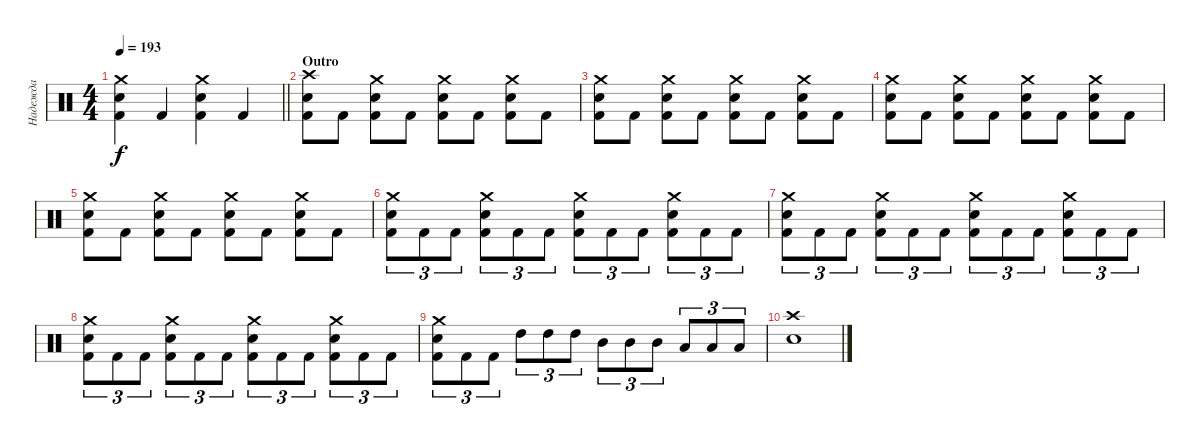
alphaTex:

\track ("Надежда" "Надежда") {instrument percussion}
\staff {score}
\articulation defaults
\ts (4 4)
\tempo 193
\clef neutral
\barLineRight lightlight
\ks c
("Crash medium (hit)" "Snare (hit) 2" "Kick (hit) 2").4{dy f} "Kick (hit) 2".4 ("Crash medium (hit)" "Snare (hit) 2" "Kick (hit) 2").4 "Kick (hit) 2".4 |
\section ("" "Outro")
("Crash high (hit)" "Snare (hit) 2" "Kick (hit) 2").8 "Kick (hit) 2".8 ("Crash medium (hit)" "Snare (hit) 2" "Kick (hit) 2").8 "Kick (hit) 2".8 ("Crash medium (hit)" "Snare (hit) 2" "Kick (hit) 2").8 "Kick (hit) 2".8 ("Crash medium (hit)" "Snare (hit) 2" "Kick (hit) 2").8 "Kick (hit) 2".8 |
("Crash medium (hit)" "Snare (hit) 2" "Kick (hit) 2").8 "Kick (hit) 2".8 ("Crash medium (hit)" "Snare (hit) 2" "Kick (hit) 2").8 "Kick (hit) 2".8 ("Crash medium (hit)" "Snare (hit) 2" "Kick (hit) 2").8 "Kick (hit) 2".8 ("Crash medium (hit)" "Snare (hit) 2" "Kick (hit) 2").8 "Kick (hit) 2".8 |
("Crash medium (hit)" "Snare (hit) 2" "Kick (hit) 2").8 "Kick (hit) 2".8 ("Crash medium (hit)" "Snare (hit) 2" "Kick (hit) 2").8 "Kick (hit) 2".8 ("Crash medium (hit)" "Snare (hit) 2" "Kick (hit) 2").8 "Kick (hit) 2".8 ("Crash medium (hit)" "Snare (hit) 2" "Kick (hit) 2").8 "Kick (hit) 2".8 |
("Crash medium (hit)" "Snare (hit) 2" "Kick (hit) 2").8 "Kick (hit) 2".8 ("Crash medium (hit)" "Snare (hit) 2" "Kick (hit) 2").8 "Kick (hit) 2".8 ("Crash medium (hit)" "Snare (hit) 2" "Kick (hit) 2").8 "Kick (hit) 2".8 ("Crash medium (hit)" "Snare (hit) 2" "Kick (hit) 2").8 "Kick (hit) 2".8 |
("Crash medium (hit)" "Snare (hit) 2" "Kick (hit) 2").8{tu (3 2)} "Kick (hit) 2".8{tu (3 2)} "Kick (hit) 2".8{tu (3 2)} ("Crash medium (hit)" "Snare (hit) 2" "Kick (hit) 2").8{tu (3 2)} "Kick (hit) 2".8{tu (3 2)} "Kick (hit) 2".8{tu (3 2)} ("Crash medium (hit)" "Snare (hit) 2" "Kick (hit) 2").8{tu (3 2)} "Kick (hit) 2".8{tu (3 2)} "Kick (hit) 2".8{tu (3 2)} ("Crash medium (hit)" "Snare (hit) 2" "Kick (hit) 2").8{tu (3 2)} "Kick (hit) 2".8{tu (3 2)} "Kick (hit) 2".8{tu (3 2)} |
("Crash medium (hit)" "Snare (hit) 2" "Kick (hit) 2").8{tu (3 2)} "Kick (hit) 2".8{tu (3 2)} "Kick (hit) 2".8{tu (3 2)} ("Crash medium (hit)" "Snare (hit) 2" "Kick (hit) 2").8{tu (3 2)} "Kick (hit) 2".8{tu (3 2)} "Kick (hit) 2".8{tu (3 2)} ("Crash medium (hit)" "Snare (hit) 2" "Kick (hit) 2").8{tu (3 2)} "Kick (hit) 2".8{tu (3 2)} "Kick (hit) 2".8{tu (3 2)} ("Crash medium (hit)" "Snare (hit) 2" "Kick (hit) 2").8{tu (3 2)} "Kick (hit) 2".8{tu (3 2)} "Kick (hit) 2".8{tu (3 2)} |
("Crash medium (hit)" "Snare (hit) 2" "Kick (hit) 2").8{tu (3 2)} "Kick (hit) 2".8{tu (3 2)} "Kick (hit) 2".8{tu (3 2)} ("Crash medium (hit)" "Snare (hit) 2" "Kick (hit) 2").8{tu (3 2)} "Kick (hit) 2".8{tu (3 2)} "Kick (hit) 2".8{tu (3 2)} ("Crash medium (hit)" "Snare (hit) 2" "Kick (hit) 2").8{tu (3 2)} "Kick (hit) 2".8{tu (3 2)} "Kick (hit) 2".8{tu (3 2)} ("Crash medium (hit)" "Snare (hit) 2" "Kick (hit) 2").8{tu (3 2)} "Kick (hit) 2".8{tu (3 2)} "Kick (hit) 2".8{tu (3 2)} |
("Crash medium (hit)" "Snare (hit) 2" "Kick (hit) 2").8{tu (3 2)} "Kick (hit) 2".8{tu (3 2)} "Kick (hit) 2".8{tu (3 2)} "High Tom (hit)".8{tu (3 2)} "High Tom (hit)".8{tu (3 2)} "High Tom (hit)".8{tu (3 2)} "Mid Tom (hit)".8{tu (3 2)} "Mid Tom (hit)".8{tu (3 2)} "Mid Tom (hit)".8{tu (3 2)} "Low Tom (hit)".8{tu (3 2)} "Low Tom (hit)".8{tu (3 2)} "Low Tom (hit)".8{tu (3 2)} |
("Crash high (hit)" "Snare (hit) 2").1
